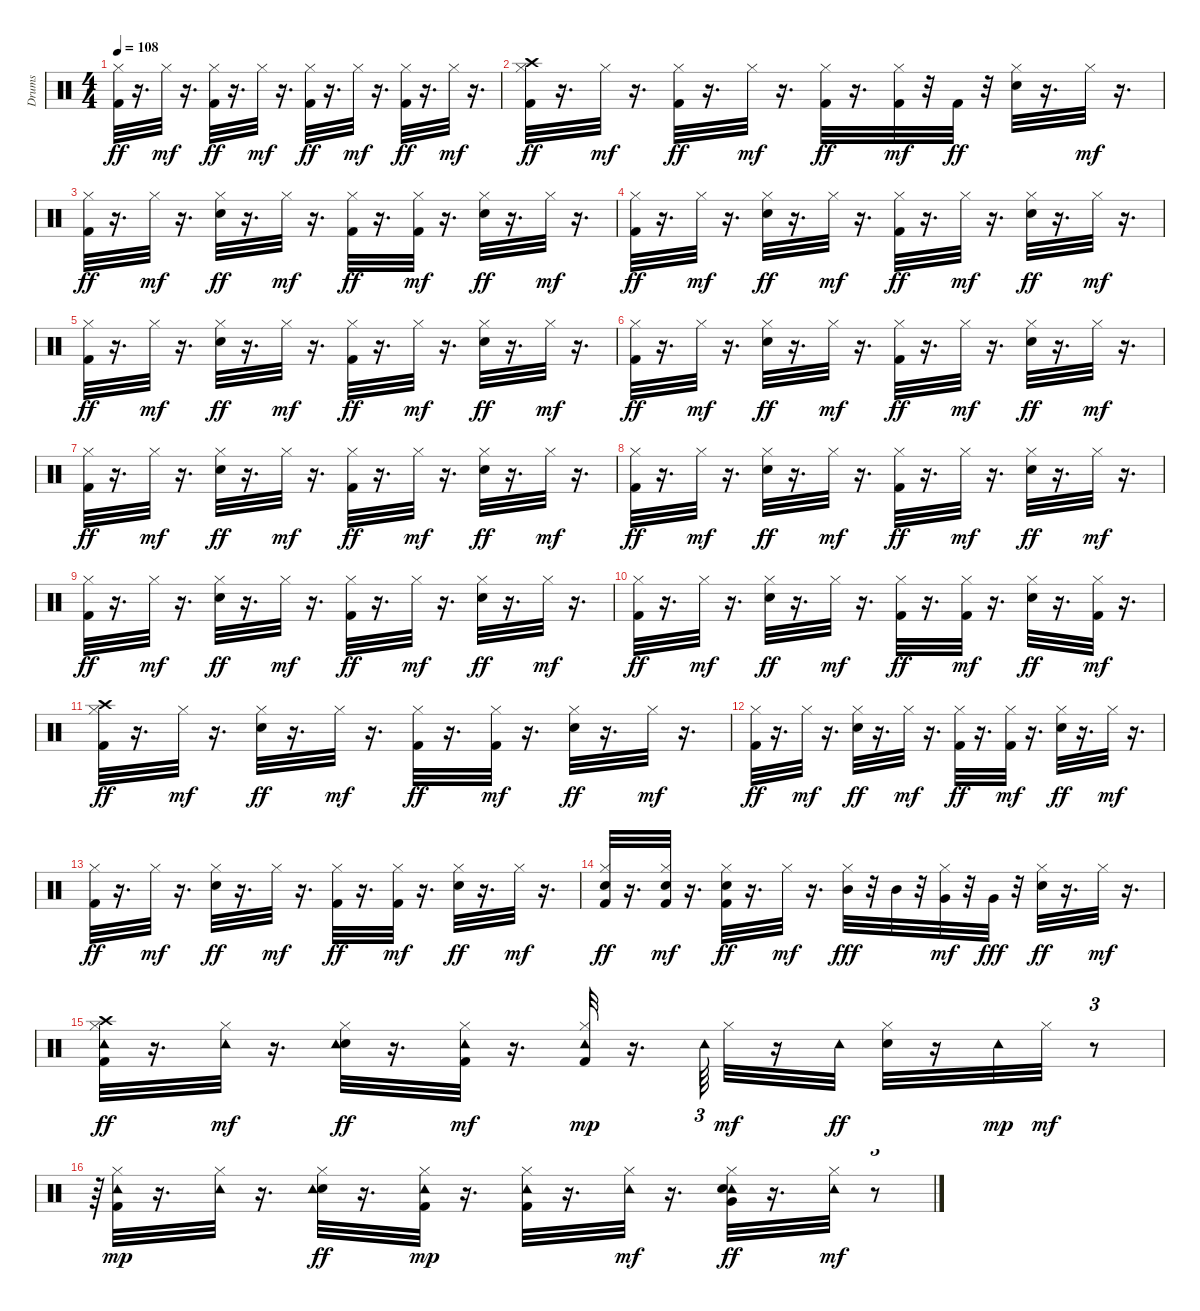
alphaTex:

\track ("Drums               " "Drums     ") {instrument percussion}
\staff {score}
\articulation defaults
\ts (4 4)
\tempo 108
\clef neutral
\ks c
("Kick (hit) 2" "Hi-Hat (closed)").32{dy ff} r.16{d} "Hi-Hat (closed)".32{dy mf} r.16{d} ("Kick (hit) 2" "Hi-Hat (closed)").32{dy ff} r.16{d} "Hi-Hat (closed)".32{dy mf} r.16{d} ("Kick (hit) 2" "Hi-Hat (closed)").32{dy ff} r.16{d} "Hi-Hat (closed)".32{dy mf} r.16{d} ("Kick (hit) 2" "Hi-Hat (closed)").32{dy ff} r.16{d} "Hi-Hat (closed)".32{dy mf} r.16{d} |
("Kick (hit) 2" "Hi-Hat (closed)" "Crash high (hit)").32{dy ff} r.16{d} "Hi-Hat (closed)".32{dy mf} r.16{d} ("Kick (hit) 2" "Hi-Hat (closed)").32{dy ff} r.16{d} "Hi-Hat (closed)".32{dy mf} r.16{d} ("Kick (hit) 2" "Hi-Hat (closed)").32{dy ff} r.16{d} ("Kick (hit) 2" "Hi-Hat (closed)").32{dy mf} r.32 "Kick (hit) 2".32{dy ff} r.32 ("Snare (hit) 2" "Hi-Hat (closed)").32 r.16{d} "Hi-Hat (closed)".32{dy mf} r.16{d} |
("Kick (hit) 2" "Hi-Hat (closed)").32{dy ff} r.16{d} "Hi-Hat (closed)".32{dy mf} r.16{d} ("Snare (hit) 2" "Hi-Hat (closed)").32{dy ff} r.16{d} "Hi-Hat (closed)".32{dy mf} r.16{d} ("Hi-Hat (closed)" "Kick (hit) 2").32{dy ff} r.16{d} ("Kick (hit) 2" "Hi-Hat (closed)").32{dy mf} r.16{d} ("Snare (hit) 2" "Hi-Hat (closed)").32{dy ff} r.16{d} "Hi-Hat (closed)".32{dy mf} r.16{d} |
("Kick (hit) 2" "Hi-Hat (closed)").32{dy ff} r.16{d} "Hi-Hat (closed)".32{dy mf} r.16{d} ("Snare (hit) 2" "Hi-Hat (closed)").32{dy ff} r.16{d} "Hi-Hat (closed)".32{dy mf} r.16{d} ("Kick (hit) 2" "Hi-Hat (closed)").32{dy ff} r.16{d} "Hi-Hat (closed)".32{dy mf} r.16{d} ("Snare (hit) 2" "Hi-Hat (closed)").32{dy ff} r.16{d} "Hi-Hat (closed)".32{dy mf} r.16{d} |
("Kick (hit) 2" "Hi-Hat (closed)").32{dy ff} r.16{d} "Hi-Hat (closed)".32{dy mf} r.16{d} ("Snare (hit) 2" "Hi-Hat (closed)").32{dy ff} r.16{d} "Hi-Hat (closed)".32{dy mf} r.16{d} ("Kick (hit) 2" "Hi-Hat (closed)").32{dy ff} r.16{d} "Hi-Hat (closed)".32{dy mf} r.16{d} ("Snare (hit) 2" "Hi-Hat (closed)").32{dy ff} r.16{d} "Hi-Hat (closed)".32{dy mf} r.16{d} |
("Kick (hit) 2" "Hi-Hat (closed)").32{dy ff} r.16{d} "Hi-Hat (closed)".32{dy mf} r.16{d} ("Hi-Hat (closed)" "Snare (hit) 2").32{dy ff} r.16{d} "Hi-Hat (closed)".32{dy mf} r.16{d} ("Kick (hit) 2" "Hi-Hat (closed)").32{dy ff} r.16{d} "Hi-Hat (closed)".32{dy mf} r.16{d} ("Snare (hit) 2" "Hi-Hat (closed)").32{dy ff} r.16{d} "Hi-Hat (closed)".32{dy mf} r.16{d} |
("Kick (hit) 2" "Hi-Hat (closed)").32{dy ff} r.16{d} "Hi-Hat (closed)".32{dy mf} r.16{d} ("Snare (hit) 2" "Hi-Hat (closed)").32{dy ff} r.16{d} "Hi-Hat (closed)".32{dy mf} r.16{d} ("Kick (hit) 2" "Hi-Hat (closed)").32{dy ff} r.16{d} "Hi-Hat (closed)".32{dy mf} r.16{d} ("Snare (hit) 2" "Hi-Hat (closed)").32{dy ff} r.16{d} "Hi-Hat (closed)".32{dy mf} r.16{d} |
("Kick (hit) 2" "Hi-Hat (closed)").32{dy ff} r.16{d} "Hi-Hat (closed)".32{dy mf} r.16{d} ("Snare (hit) 2" "Hi-Hat (closed)").32{dy ff} r.16{d} "Hi-Hat (closed)".32{dy mf} r.16{d} ("Kick (hit) 2" "Hi-Hat (closed)").32{dy ff} r.16{d} "Hi-Hat (closed)".32{dy mf} r.16{d} ("Snare (hit) 2" "Hi-Hat (closed)").32{dy ff} r.16{d} "Hi-Hat (closed)".32{dy mf} r.16{d} |
("Hi-Hat (closed)" "Kick (hit) 2").32{dy ff} r.16{d} "Hi-Hat (closed)".32{dy mf} r.16{d} ("Snare (hit) 2" "Hi-Hat (closed)").32{dy ff} r.16{d} "Hi-Hat (closed)".32{dy mf} r.16{d} ("Kick (hit) 2" "Hi-Hat (closed)").32{dy ff} r.16{d} "Hi-Hat (closed)".32{dy mf} r.16{d} ("Snare (hit) 2" "Hi-Hat (closed)").32{dy ff} r.16{d} "Hi-Hat (closed)".32{dy mf} r.16{d} |
("Kick (hit) 2" "Hi-Hat (closed)").32{dy ff} r.16{d} "Hi-Hat (closed)".32{dy mf} r.16{d} ("Snare (hit) 2" "Hi-Hat (closed)").32{dy ff} r.16{d} "Hi-Hat (closed)".32{dy mf} r.16{d} ("Kick (hit) 2" "Hi-Hat (closed)").32{dy ff} r.16{d} ("Kick (hit) 2" "Hi-Hat (closed)").32{dy mf} r.16{d} ("Snare (hit) 2" "Hi-Hat (closed)").32{dy ff} r.16{d} ("Kick (hit) 2" "Hi-Hat (closed)").32{dy mf} r.16{d} |
("Kick (hit) 2" "Crash high (hit)" "Hi-Hat (closed)").32{dy ff} r.16{d} "Hi-Hat (closed)".32{dy mf} r.16{d} ("Snare (hit) 2" "Hi-Hat (closed)").32{dy ff} r.16{d} "Hi-Hat (closed)".32{dy mf} r.16{d} ("Kick (hit) 2" "Hi-Hat (closed)").32{dy ff} r.16{d} ("Kick (hit) 2" "Hi-Hat (closed)").32{dy mf} r.16{d} ("Hi-Hat (closed)" "Snare (hit) 2").32{dy ff} r.16{d} "Hi-Hat (closed)".32{dy mf} r.16{d} |
("Kick (hit) 2" "Hi-Hat (closed)").32{dy ff} r.16{d} "Hi-Hat (closed)".32{dy mf} r.16{d} ("Snare (hit) 2" "Hi-Hat (closed)").32{dy ff} r.16{d} "Hi-Hat (closed)".32{dy mf} r.16{d} ("Kick (hit) 2" "Hi-Hat (closed)").32{dy ff} r.16{d} ("Kick (hit) 2" "Hi-Hat (closed)").32{dy mf} r.16{d} ("Snare (hit) 2" "Hi-Hat (closed)").32{dy ff} r.16{d} "Hi-Hat (closed)".32{dy mf} r.16{d} |
("Kick (hit) 2" "Hi-Hat (closed)").32{dy ff} r.16{d} "Hi-Hat (closed)".32{dy mf} r.16{d} ("Snare (hit) 2" "Hi-Hat (closed)").32{dy ff} r.16{d} "Hi-Hat (closed)".32{dy mf} r.16{d} ("Kick (hit) 2" "Hi-Hat (closed)").32{dy ff} r.16{d} ("Kick (hit) 2" "Hi-Hat (closed)").32{dy mf} r.16{d} ("Snare (hit) 2" "Hi-Hat (closed)").32{dy ff} r.16{d} "Hi-Hat (closed)".32{dy mf} r.16{d} |
("Kick (hit) 2" "Snare (hit) 2" "Hi-Hat (closed)").32{dy ff} r.16{d} ("Kick (hit) 2" "Snare (hit) 2" "Hi-Hat (closed)").32{dy mf} r.16{d} ("Kick (hit) 2" "Snare (hit) 2" "Hi-Hat (closed)").32{dy ff} r.16{d} "Hi-Hat (closed)".32{dy mf} r.16{d} ("Hi-Hat (closed)" "Mid Tom (hit)").32{dy fff} r.32 "Mid Tom (hit)".32 r.32 ("Very Low Tom (hit)" "Hi-Hat (closed)").32{dy mf} r.32 "Very Low Tom (hit)".32{dy fff} r.32 ("Snare (hit) 2" "Hi-Hat (closed)").32{dy ff} r.16{d} "Hi-Hat (closed)".32{dy mf} r.16{d} |
("Kick (hit) 2" "Crash high (hit)" "Tambourine (hit)" "Hi-Hat (closed)").32{dy ff} r.16{d} ("Tambourine (hit)" "Hi-Hat (closed)").32{dy mf} r.16{d} ("Snare (hit) 2" "Hi-Hat (closed)" "Tambourine (hit)").32{dy ff} r.16{d} ("Tambourine (hit)" "Kick (hit) 2" "Hi-Hat (closed)").32{dy mf} r.16{d} ("Kick (hit) 2" "Hi-Hat (closed)" "Tambourine (hit)").32{dy mp} r.16{d} "Tambourine (hit)".64{tu (3 2)} "Hi-Hat (closed)".32{dy mf} r.16 "Tambourine (hit)".32{dy ff} ("Snare (hit) 2" "Hi-Hat (closed)").32 r.16 "Tambourine (hit)".32{dy mp} "Hi-Hat (closed)".32{dy mf} r.8{tu (3 2)} |
r.64{tu (3 2)} ("Kick (hit) 2" "Hi-Hat (closed)" "Tambourine (hit)").32{dy mp} r.16{d} ("Hi-Hat (closed)" "Tambourine (hit)").32 r.16{d} ("Snare (hit) 2" "Hi-Hat (closed)" "Tambourine (hit)").32{dy ff} r.16{d} ("Kick (hit) 2" "Hi-Hat (closed)" "Tambourine (hit)").32{dy mp} r.16{d} ("Kick (hit) 2" "Hi-Hat (closed)" "Tambourine (hit)").32 r.16{d} ("Tambourine (hit)" "Hi-Hat (closed)").32{dy mf} r.16{d} ("Tambourine (hit)" "Snare (hit) 2" "Very Low Tom (hit)" "Hi-Hat (closed)").32{dy ff} r.16{d} ("Tambourine (hit)" "Hi-Hat (closed)").32{dy mf} r.8{tu (3 2)}
